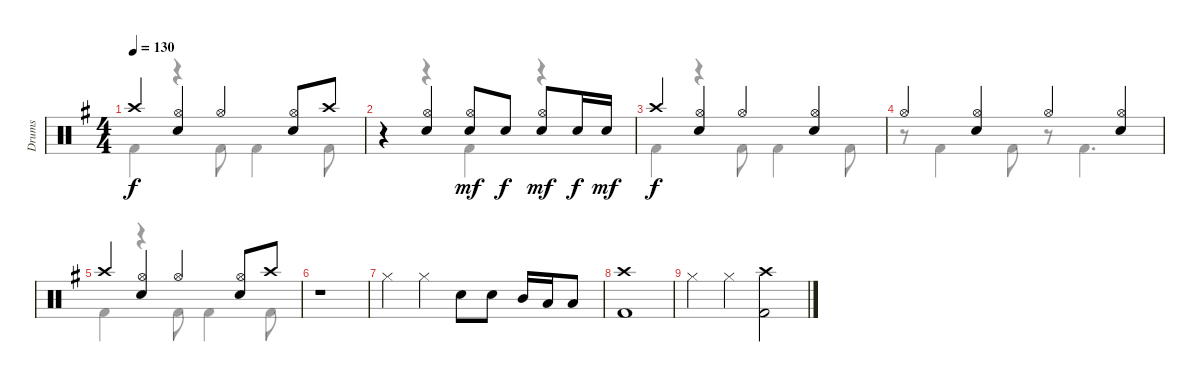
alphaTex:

\track ("Drums" "Drums") {instrument percussion}
\staff {score}
\articulation defaults
\voice
\ts (4 4)
\tempo 130
\clef neutral
\ks g "Crash high (hit)".4{dy f}
("Hi-Hat (open)" "Electric Snare (hit)").4 "Hi-Hat (open)".4 ("Hi-Hat (open)" "Electric Snare (hit)").8 "Crash high (hit)".8 |
r.4 ("Hi-Hat (open)" "Electric Snare (hit)").4 ("Hi-Hat (open)" "Electric Snare (hit)").8{dy mf} "Electric Snare (hit)".8{dy f} ("Hi-Hat (open)" "Electric Snare (hit)").8{dy mf} "Electric Snare (hit)".16{dy f} "Electric Snare (hit)".16{dy mf} |
"Crash high (hit)".4{dy f} ("Hi-Hat (open)" "Electric Snare (hit)").4 "Hi-Hat (open)".4 ("Hi-Hat (open)" "Electric Snare (hit)").4 |
"Hi-Hat (open)".4 ("Hi-Hat (open)" "Electric Snare (hit)").4 "Hi-Hat (open)".4 ("Hi-Hat (open)" "Electric Snare (hit)").4 |
"Crash high (hit)".4 ("Hi-Hat (open)" "Electric Snare (hit)").4 "Hi-Hat (open)".4 ("Hi-Hat (open)" "Electric Snare (hit)").8 "Crash high (hit)".8 |
r.1 |
"Hi-Hat (closed)".4 "Hi-Hat (closed)".4 "Electric Snare (hit)".8 "Electric Snare (hit)".8 "Mid Tom (hit)".16 "Low Tom (hit)".16 "Low Tom (hit)".8 |
("Crash high (hit)" "Kick (hit) 2").1 |
"Hi-Hat (closed)".4 "Hi-Hat (closed)".4 ("Crash high (hit)" "Kick (hit) 2").2
\voice
\clef neutral
\ottava regular
\simile none
\ks g "Kick (hit) 2".4{dy f}
r.4 "Kick (hit) 2".8 "Kick (hit) 2".4 "Kick (hit) 2".8 |
r.4 r.4 "Kick (hit) 2".4{dy mf} r.4 |
"Kick (hit) 2".4{dy f} r.4 "Kick (hit) 2".8 "Kick (hit) 2".4 "Kick (hit) 2".8 |
r.8 "Kick (hit) 2".4 "Kick (hit) 2".8 r.8 "Kick (hit) 2".4{d} |
"Kick (hit) 2".4 r.4 "Kick (hit) 2".8 "Kick (hit) 2".4 "Kick (hit) 2".8 |
|
|
|
